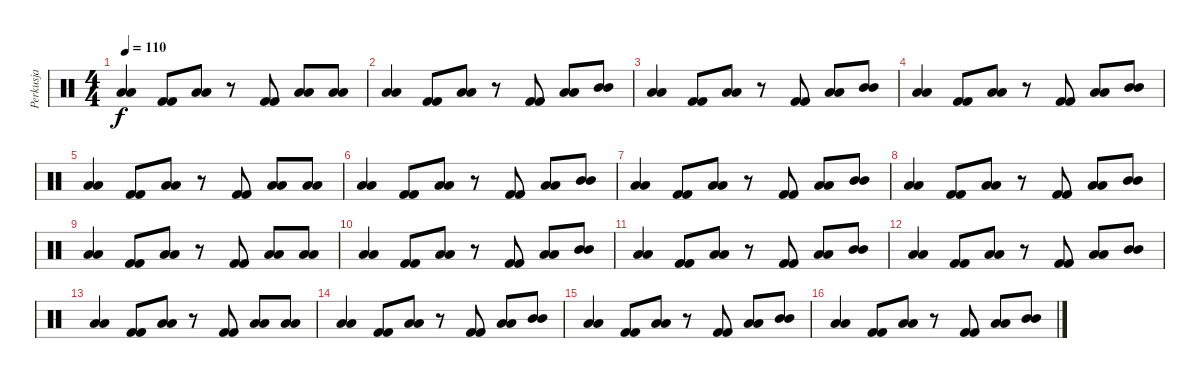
\track ("Perkusja" "Perkusja") {instrument percussion}
\staff {score}
\articulation defaults
\ts (4 4)
\tempo 110
\clef neutral
\ks c
("Low Floor Tom (hit)" "Low Floor Tom (hit)").4{dy f} ("Kick (hit) 2" "Kick (hit) 2").8 ("Low Floor Tom (hit)" "Low Floor Tom (hit)").8 r.8 ("Kick (hit) 2" "Kick (hit) 2").8 ("Low Floor Tom (hit)" "Low Floor Tom (hit)").8 ("Low Tom (hit)" "Low Tom (hit)").8 |
("Low Tom (hit)" "Low Tom (hit)").4 ("Kick (hit) 2" "Kick (hit) 2").8 ("Low Tom (hit)" "Low Tom (hit)").8 r.8 ("Kick (hit) 2" "Kick (hit) 2").8 ("Low Tom (hit)" "Low Tom (hit)").8 ("Mid Tom (hit)" "Mid Tom (hit)").8 |
("Low Tom (hit)" "Low Tom (hit)").4 ("Kick (hit) 2" "Kick (hit) 2").8 ("Low Tom (hit)" "Low Tom (hit)").8 r.8 ("Kick (hit) 2" "Kick (hit) 2").8 ("Low Tom (hit)" "Low Tom (hit)").8 ("Mid Tom (hit)" "Mid Tom (hit)").8 |
("Low Tom (hit)" "Low Tom (hit)").4 ("Kick (hit) 2" "Kick (hit) 2").8 ("Low Tom (hit)" "Low Tom (hit)").8 r.8 ("Kick (hit) 2" "Kick (hit) 2").8 ("Low Tom (hit)" "Low Tom (hit)").8 ("Mid Tom (hit)" "Mid Tom (hit)").8 |
("Low Floor Tom (hit)" "Low Floor Tom (hit)").4 ("Kick (hit) 2" "Kick (hit) 2").8 ("Low Floor Tom (hit)" "Low Floor Tom (hit)").8 r.8 ("Kick (hit) 2" "Kick (hit) 2").8 ("Low Floor Tom (hit)" "Low Floor Tom (hit)").8 ("Low Tom (hit)" "Low Tom (hit)").8 |
("Low Tom (hit)" "Low Tom (hit)").4 ("Kick (hit) 2" "Kick (hit) 2").8 ("Low Tom (hit)" "Low Tom (hit)").8 r.8 ("Kick (hit) 2" "Kick (hit) 2").8 ("Low Tom (hit)" "Low Tom (hit)").8 ("Mid Tom (hit)" "Mid Tom (hit)").8 |
("Low Tom (hit)" "Low Tom (hit)").4 ("Kick (hit) 2" "Kick (hit) 2").8 ("Low Tom (hit)" "Low Tom (hit)").8 r.8 ("Kick (hit) 2" "Kick (hit) 2").8 ("Low Tom (hit)" "Low Tom (hit)").8 ("Mid Tom (hit)" "Mid Tom (hit)").8 |
("Low Tom (hit)" "Low Tom (hit)").4 ("Kick (hit) 2" "Kick (hit) 2").8 ("Low Tom (hit)" "Low Tom (hit)").8 r.8 ("Kick (hit) 2" "Kick (hit) 2").8 ("Low Tom (hit)" "Low Tom (hit)").8 ("Mid Tom (hit)" "Mid Tom (hit)").8 |
("Low Floor Tom (hit)" "Low Floor Tom (hit)").4 ("Kick (hit) 2" "Kick (hit) 2").8 ("Low Floor Tom (hit)" "Low Floor Tom (hit)").8 r.8 ("Kick (hit) 2" "Kick (hit) 2").8 ("Low Floor Tom (hit)" "Low Floor Tom (hit)").8 ("Low Tom (hit)" "Low Tom (hit)").8 |
("Low Tom (hit)" "Low Tom (hit)").4 ("Kick (hit) 2" "Kick (hit) 2").8 ("Low Tom (hit)" "Low Tom (hit)").8 r.8 ("Kick (hit) 2" "Kick (hit) 2").8 ("Low Tom (hit)" "Low Tom (hit)").8 ("Mid Tom (hit)" "Mid Tom (hit)").8 |
("Low Tom (hit)" "Low Tom (hit)").4 ("Kick (hit) 2" "Kick (hit) 2").8 ("Low Tom (hit)" "Low Tom (hit)").8 r.8 ("Kick (hit) 2" "Kick (hit) 2").8 ("Low Tom (hit)" "Low Tom (hit)").8 ("Mid Tom (hit)" "Mid Tom (hit)").8 |
("Low Tom (hit)" "Low Tom (hit)").4 ("Kick (hit) 2" "Kick (hit) 2").8 ("Low Tom (hit)" "Low Tom (hit)").8 r.8 ("Kick (hit) 2" "Kick (hit) 2").8 ("Low Tom (hit)" "Low Tom (hit)").8 ("Mid Tom (hit)" "Mid Tom (hit)").8 |
("Low Floor Tom (hit)" "Low Floor Tom (hit)").4 ("Kick (hit) 2" "Kick (hit) 2").8 ("Low Floor Tom (hit)" "Low Floor Tom (hit)").8 r.8 ("Kick (hit) 2" "Kick (hit) 2").8 ("Low Floor Tom (hit)" "Low Floor Tom (hit)").8 ("Low Tom (hit)" "Low Tom (hit)").8 |
("Low Tom (hit)" "Low Tom (hit)").4 ("Kick (hit) 2" "Kick (hit) 2").8 ("Low Tom (hit)" "Low Tom (hit)").8 r.8 ("Kick (hit) 2" "Kick (hit) 2").8 ("Low Tom (hit)" "Low Tom (hit)").8 ("Mid Tom (hit)" "Mid Tom (hit)").8 |
("Low Tom (hit)" "Low Tom (hit)").4 ("Kick (hit) 2" "Kick (hit) 2").8 ("Low Tom (hit)" "Low Tom (hit)").8 r.8 ("Kick (hit) 2" "Kick (hit) 2").8 ("Low Tom (hit)" "Low Tom (hit)").8 ("Mid Tom (hit)" "Mid Tom (hit)").8 |
("Low Tom (hit)" "Low Tom (hit)").4 ("Kick (hit) 2" "Kick (hit) 2").8 ("Low Tom (hit)" "Low Tom (hit)").8 r.8 ("Kick (hit) 2" "Kick (hit) 2").8 ("Low Tom (hit)" "Low Tom (hit)").8 ("Mid Tom (hit)" "Mid Tom (hit)").8
